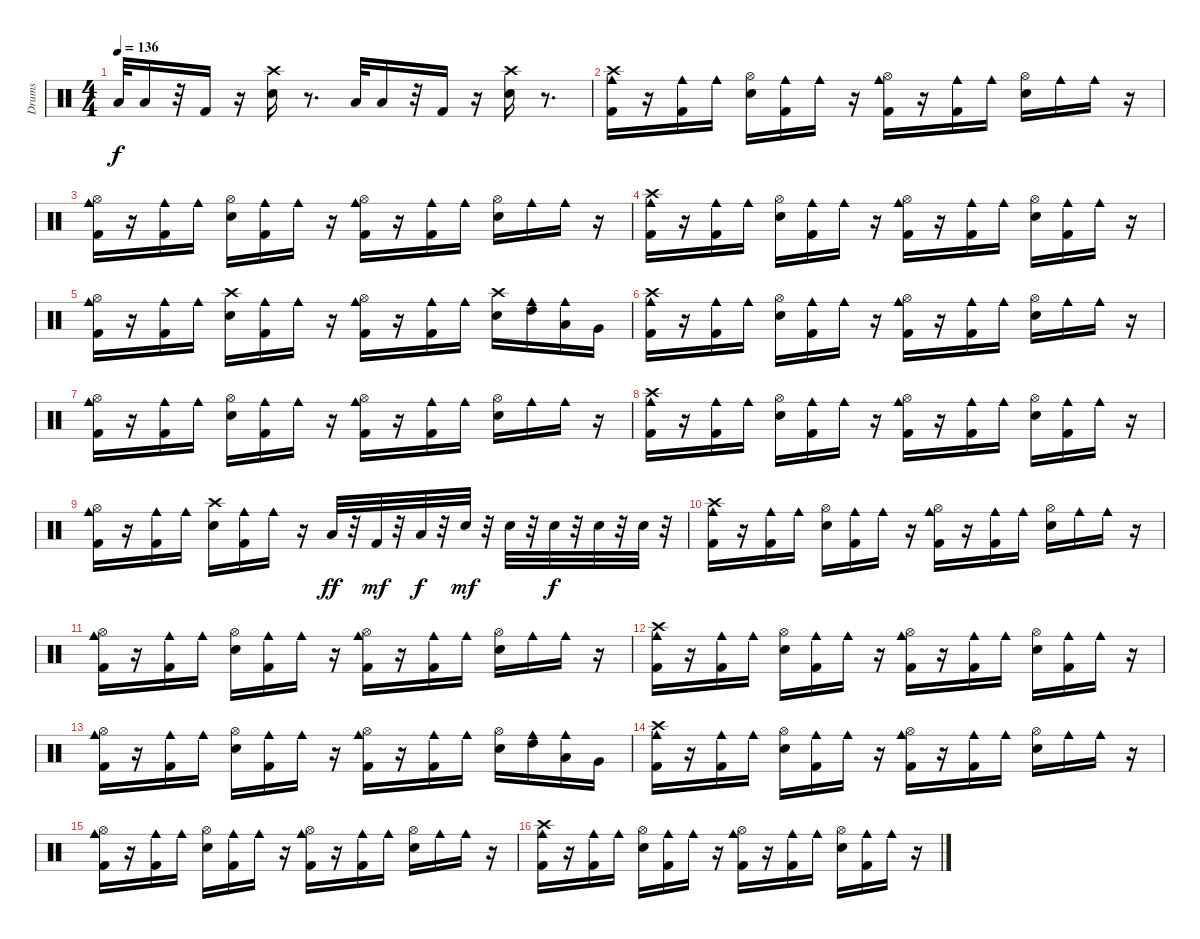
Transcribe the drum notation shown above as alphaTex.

\track ("Drums" "Drums") {instrument percussion}
\staff {score}
\articulation defaults
\ts (4 4)
\tempo 136
\clef neutral
\ks c "Low Tom (hit)".32{dy f} "Low Tom (hit)".16
r.32 "Kick (hit) 2".16 r.16 ("Metronome (bell)" "Crash high (hit)").16 r.8{d} "Low Floor Tom (hit)".32 "Low Floor Tom (hit)".16 r.32 "Kick (hit) 2".16 r.16 ("Metronome (bell)" "Crash high (hit)").16 r.8{d} |
("Cowbell medium (hit)" "Kick (hit) 2" "Crash high (hit)").16 r.16 ("Cowbell medium (hit)" "Kick (hit) 2").16 "Cowbell medium (hit)".16 ("Metronome (bell)" "Hi-Hat (open)").16 ("Cowbell medium (hit)" "Kick (hit) 2").16 "Cowbell medium (hit)".16 r.16 ("Kick (hit) 2" "Cowbell medium (hit)" "Hi-Hat (open)").16 r.16 ("Cowbell medium (hit)" "Kick (hit) 2").16 "Cowbell medium (hit)".16 ("Metronome (bell)" "Hi-Hat (open)").16 "Cowbell medium (hit)".16 "Cowbell medium (hit)".16 r.16 |
("Kick (hit) 2" "Cowbell medium (hit)" "Hi-Hat (open)").16 r.16 ("Kick (hit) 2" "Cowbell medium (hit)").16 "Cowbell medium (hit)".16 ("Metronome (bell)" "Hi-Hat (open)").16 ("Cowbell medium (hit)" "Kick (hit) 2").16 "Cowbell medium (hit)".16 r.16 ("Kick (hit) 2" "Cowbell medium (hit)" "Hi-Hat (open)").16 r.16 ("Kick (hit) 2" "Cowbell medium (hit)").16 "Cowbell medium (hit)".16 ("Metronome (bell)" "Hi-Hat (open)").16 "Cowbell medium (hit)".16 "Cowbell medium (hit)".16 r.16 |
("Cowbell medium (hit)" "Kick (hit) 2" "Crash high (hit)").16 r.16 ("Cowbell medium (hit)" "Kick (hit) 2").16 "Cowbell medium (hit)".16 ("Metronome (bell)" "Hi-Hat (open)").16 ("Cowbell medium (hit)" "Kick (hit) 2").16 "Cowbell medium (hit)".16 r.16 ("Kick (hit) 2" "Cowbell medium (hit)" "Hi-Hat (open)").16 r.16 ("Cowbell medium (hit)" "Kick (hit) 2").16 "Cowbell medium (hit)".16 ("Metronome (bell)" "Hi-Hat (open)").16 ("Cowbell medium (hit)" "Kick (hit) 2").16 "Cowbell medium (hit)".16 r.16 |
("Kick (hit) 2" "Cowbell medium (hit)" "Hi-Hat (open)").16 r.16 ("Kick (hit) 2" "Cowbell medium (hit)").16 "Cowbell medium (hit)".16 ("Metronome (bell)" "Crash high (hit)").16 ("Cowbell medium (hit)" "Kick (hit) 2").16 "Cowbell medium (hit)".16 r.16 ("Kick (hit) 2" "Cowbell medium (hit)" "Hi-Hat (open)").16 r.16 ("Kick (hit) 2" "Cowbell medium (hit)").16 "Cowbell medium (hit)".16 ("Metronome (bell)" "Crash high (hit)").16 ("Cowbell medium (hit)" "High Tom (hit)").16 ("Cowbell medium (hit)" "Low Tom (hit)").16 "Very Low Tom (hit)".16 |
("Cowbell medium (hit)" "Kick (hit) 2" "Crash high (hit)").16 r.16 ("Cowbell medium (hit)" "Kick (hit) 2").16 "Cowbell medium (hit)".16 ("Metronome (bell)" "Hi-Hat (open)").16 ("Cowbell medium (hit)" "Kick (hit) 2").16 "Cowbell medium (hit)".16 r.16 ("Kick (hit) 2" "Cowbell medium (hit)" "Hi-Hat (open)").16 r.16 ("Cowbell medium (hit)" "Kick (hit) 2").16 "Cowbell medium (hit)".16 ("Metronome (bell)" "Hi-Hat (open)").16 "Cowbell medium (hit)".16 "Cowbell medium (hit)".16 r.16 |
("Kick (hit) 2" "Cowbell medium (hit)" "Hi-Hat (open)").16 r.16 ("Kick (hit) 2" "Cowbell medium (hit)").16 "Cowbell medium (hit)".16 ("Metronome (bell)" "Hi-Hat (open)").16 ("Cowbell medium (hit)" "Kick (hit) 2").16 "Cowbell medium (hit)".16 r.16 ("Kick (hit) 2" "Cowbell medium (hit)" "Hi-Hat (open)").16 r.16 ("Kick (hit) 2" "Cowbell medium (hit)").16 "Cowbell medium (hit)".16 ("Metronome (bell)" "Hi-Hat (open)").16 "Cowbell medium (hit)".16 "Cowbell medium (hit)".16 r.16 |
("Cowbell medium (hit)" "Kick (hit) 2" "Crash high (hit)").16 r.16 ("Cowbell medium (hit)" "Kick (hit) 2").16 "Cowbell medium (hit)".16 ("Metronome (bell)" "Hi-Hat (open)").16 ("Cowbell medium (hit)" "Kick (hit) 2").16 "Cowbell medium (hit)".16 r.16 ("Kick (hit) 2" "Cowbell medium (hit)" "Hi-Hat (open)").16 r.16 ("Cowbell medium (hit)" "Kick (hit) 2").16 "Cowbell medium (hit)".16 ("Metronome (bell)" "Hi-Hat (open)").16 ("Cowbell medium (hit)" "Kick (hit) 2").16 "Cowbell medium (hit)".16 r.16 |
("Kick (hit) 2" "Cowbell medium (hit)" "Hi-Hat (open)").16 r.16 ("Kick (hit) 2" "Cowbell medium (hit)").16 "Cowbell medium (hit)".16 ("Metronome (bell)" "Crash high (hit)").16 ("Cowbell medium (hit)" "Kick (hit) 2").16 "Cowbell medium (hit)".16 r.16 "Low Tom (hit)".32{dy ff} r.32 "Kick (hit) 2".32{dy mf} r.32 "Low Floor Tom (hit)".32{dy f} r.32 "Metronome (bell)".32{dy mf} r.32 "Metronome (bell)".32 r.32 "Metronome (bell)".32{dy f} r.32 "Metronome (bell)".32 r.32 "Metronome (bell)".32 r.32 |
("Cowbell medium (hit)" "Kick (hit) 2" "Crash high (hit)").16 r.16 ("Cowbell medium (hit)" "Kick (hit) 2").16 "Cowbell medium (hit)".16 ("Metronome (bell)" "Hi-Hat (open)").16 ("Cowbell medium (hit)" "Kick (hit) 2").16 "Cowbell medium (hit)".16 r.16 ("Kick (hit) 2" "Cowbell medium (hit)" "Hi-Hat (open)").16 r.16 ("Cowbell medium (hit)" "Kick (hit) 2").16 "Cowbell medium (hit)".16 ("Metronome (bell)" "Hi-Hat (open)").16 "Cowbell medium (hit)".16 "Cowbell medium (hit)".16 r.16 |
("Kick (hit) 2" "Cowbell medium (hit)" "Hi-Hat (open)").16 r.16 ("Kick (hit) 2" "Cowbell medium (hit)").16 "Cowbell medium (hit)".16 ("Metronome (bell)" "Hi-Hat (open)").16 ("Cowbell medium (hit)" "Kick (hit) 2").16 "Cowbell medium (hit)".16 r.16 ("Kick (hit) 2" "Cowbell medium (hit)" "Hi-Hat (open)").16 r.16 ("Kick (hit) 2" "Cowbell medium (hit)").16 "Cowbell medium (hit)".16 ("Metronome (bell)" "Hi-Hat (open)").16 "Cowbell medium (hit)".16 "Cowbell medium (hit)".16 r.16 |
("Cowbell medium (hit)" "Kick (hit) 2" "Crash high (hit)").16 r.16 ("Cowbell medium (hit)" "Kick (hit) 2").16 "Cowbell medium (hit)".16 ("Metronome (bell)" "Hi-Hat (open)").16 ("Cowbell medium (hit)" "Kick (hit) 2").16 "Cowbell medium (hit)".16 r.16 ("Kick (hit) 2" "Cowbell medium (hit)" "Hi-Hat (open)").16 r.16 ("Cowbell medium (hit)" "Kick (hit) 2").16 "Cowbell medium (hit)".16 ("Metronome (bell)" "Hi-Hat (open)").16 ("Cowbell medium (hit)" "Kick (hit) 2").16 "Cowbell medium (hit)".16 r.16 |
("Kick (hit) 2" "Cowbell medium (hit)" "Hi-Hat (open)").16 r.16 ("Kick (hit) 2" "Cowbell medium (hit)").16 "Cowbell medium (hit)".16 ("Metronome (bell)" "Hi-Hat (open)").16 ("Cowbell medium (hit)" "Kick (hit) 2").16 "Cowbell medium (hit)".16 r.16 ("Kick (hit) 2" "Cowbell medium (hit)" "Hi-Hat (open)").16 r.16 ("Kick (hit) 2" "Cowbell medium (hit)").16 "Cowbell medium (hit)".16 ("Metronome (bell)" "Hi-Hat (open)").16 ("Cowbell medium (hit)" "High Tom (hit)").16 ("Cowbell medium (hit)" "Low Tom (hit)").16 "Very Low Tom (hit)".16 |
("Cowbell medium (hit)" "Kick (hit) 2" "Crash high (hit)").16 r.16 ("Cowbell medium (hit)" "Kick (hit) 2").16 "Cowbell medium (hit)".16 ("Metronome (bell)" "Hi-Hat (open)").16 ("Cowbell medium (hit)" "Kick (hit) 2").16 "Cowbell medium (hit)".16 r.16 ("Kick (hit) 2" "Cowbell medium (hit)" "Hi-Hat (open)").16 r.16 ("Cowbell medium (hit)" "Kick (hit) 2").16 "Cowbell medium (hit)".16 ("Metronome (bell)" "Hi-Hat (open)").16 "Cowbell medium (hit)".16 "Cowbell medium (hit)".16 r.16 |
("Kick (hit) 2" "Cowbell medium (hit)" "Hi-Hat (open)").16 r.16 ("Kick (hit) 2" "Cowbell medium (hit)").16 "Cowbell medium (hit)".16 ("Metronome (bell)" "Hi-Hat (open)").16 ("Cowbell medium (hit)" "Kick (hit) 2").16 "Cowbell medium (hit)".16 r.16 ("Kick (hit) 2" "Cowbell medium (hit)" "Hi-Hat (open)").16 r.16 ("Kick (hit) 2" "Cowbell medium (hit)").16 "Cowbell medium (hit)".16 ("Metronome (bell)" "Hi-Hat (open)").16 "Cowbell medium (hit)".16 "Cowbell medium (hit)".16 r.16 |
("Cowbell medium (hit)" "Kick (hit) 2" "Crash high (hit)").16 r.16 ("Cowbell medium (hit)" "Kick (hit) 2").16 "Cowbell medium (hit)".16 ("Metronome (bell)" "Hi-Hat (open)").16 ("Cowbell medium (hit)" "Kick (hit) 2").16 "Cowbell medium (hit)".16 r.16 ("Kick (hit) 2" "Cowbell medium (hit)" "Hi-Hat (open)").16 r.16 ("Cowbell medium (hit)" "Kick (hit) 2").16 "Cowbell medium (hit)".16 ("Metronome (bell)" "Hi-Hat (open)").16 ("Cowbell medium (hit)" "Kick (hit) 2").16 "Cowbell medium (hit)".16 r.16
